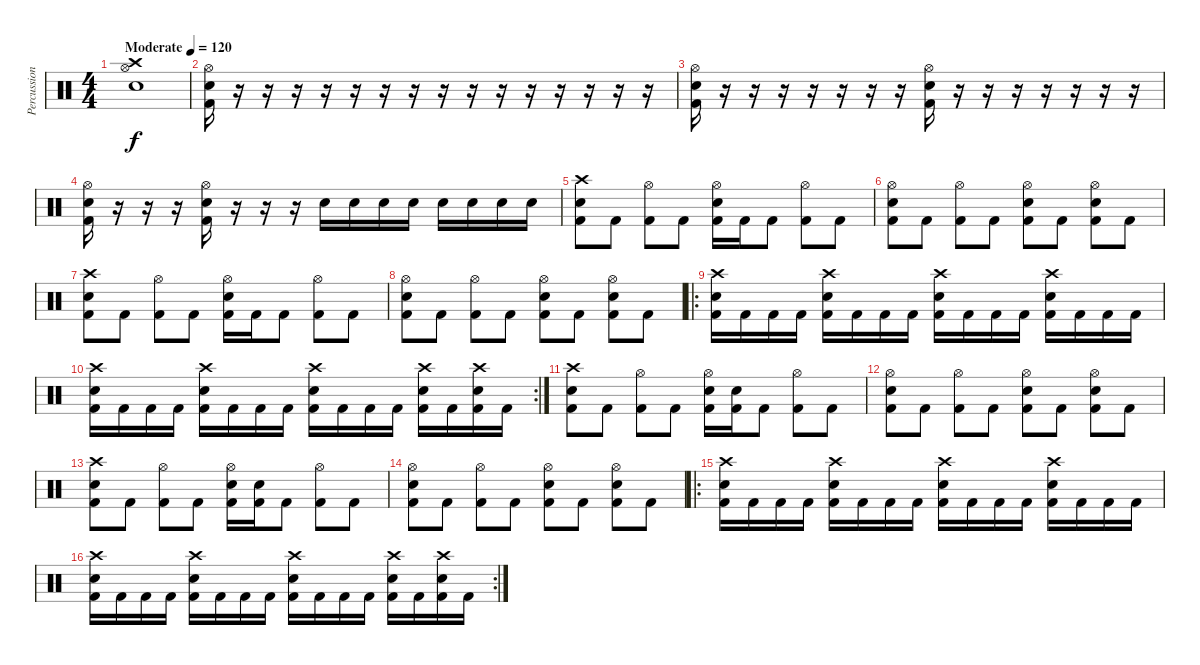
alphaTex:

\track ("Percussion" "Percussion") {instrument percussion}
\staff {score}
\articulation defaults
\ts (4 4)
\tempo (120 "Moderate")
\clef neutral
\ks c
("Crash high (hit)" "Hi-Hat (open)" "Snare (hit) 2").1{dy f} |
("Hi-Hat (open)" "Snare (hit) 2" "Kick (hit) 2").16 r.16 r.16 r.16 r.16 r.16 r.16 r.16 r.16 r.16 r.16 r.16 r.16 r.16 r.16 r.16 |
("Hi-Hat (open)" "Snare (hit) 2" "Kick (hit) 2").16 r.16 r.16 r.16 r.16 r.16 r.16 r.16 ("Hi-Hat (open)" "Snare (hit) 2" "Kick (hit) 2").16 r.16 r.16 r.16 r.16 r.16 r.16 r.16 |
("Hi-Hat (open)" "Snare (hit) 2" "Kick (hit) 2").16 r.16 r.16 r.16 ("Hi-Hat (open)" "Snare (hit) 2" "Kick (hit) 2").16 r.16 r.16 r.16 "Snare (hit) 2".16 "Snare (hit) 2".16 "Snare (hit) 2".16 "Snare (hit) 2".16 "Snare (hit) 2".16 "Snare (hit) 2".16 "Snare (hit) 2".16 "Snare (hit) 2".16 |
("Crash high (hit)" "Snare (hit) 2" "Kick (hit) 2").8 "Kick (hit) 2".8 ("Hi-Hat (open)" "Kick (hit) 2").8 "Kick (hit) 2".8 ("Hi-Hat (open)" "Snare (hit) 2" "Kick (hit) 2").16 "Kick (hit) 2".16 "Kick (hit) 2".8 ("Hi-Hat (open)" "Kick (hit) 2").8 "Kick (hit) 2".8 |
("Hi-Hat (open)" "Snare (hit) 2" "Kick (hit) 2").8 "Kick (hit) 2".8 ("Hi-Hat (open)" "Kick (hit) 2").8 "Kick (hit) 2".8 ("Hi-Hat (open)" "Snare (hit) 2" "Kick (hit) 2").8 "Kick (hit) 2".8 ("Hi-Hat (open)" "Snare (hit) 2" "Kick (hit) 2").8 "Kick (hit) 2".8 |
("Crash high (hit)" "Snare (hit) 2" "Kick (hit) 2").8 "Kick (hit) 2".8 ("Hi-Hat (open)" "Kick (hit) 2").8 "Kick (hit) 2".8 ("Hi-Hat (open)" "Snare (hit) 2" "Kick (hit) 2").16 "Kick (hit) 2".16 "Kick (hit) 2".8 ("Hi-Hat (open)" "Kick (hit) 2").8 "Kick (hit) 2".8 |
("Hi-Hat (open)" "Snare (hit) 2" "Kick (hit) 2").8 "Kick (hit) 2".8 ("Hi-Hat (open)" "Kick (hit) 2").8 "Kick (hit) 2".8 ("Hi-Hat (open)" "Snare (hit) 2" "Kick (hit) 2").8 "Kick (hit) 2".8 ("Hi-Hat (open)" "Snare (hit) 2" "Kick (hit) 2").8 "Kick (hit) 2".8 |
\ro
("Crash high (hit)" "Snare (hit) 2" "Kick (hit) 2").16 "Kick (hit) 2".16 "Kick (hit) 2".16 "Kick (hit) 2".16 ("Crash high (hit)" "Snare (hit) 2" "Kick (hit) 2").16 "Kick (hit) 2".16 "Kick (hit) 2".16 "Kick (hit) 2".16 ("Crash high (hit)" "Snare (hit) 2" "Kick (hit) 2").16 "Kick (hit) 2".16 "Kick (hit) 2".16 "Kick (hit) 2".16 ("Crash high (hit)" "Snare (hit) 2" "Kick (hit) 2").16 "Kick (hit) 2".16 "Kick (hit) 2".16 "Kick (hit) 2".16 |
\rc 2
("Crash high (hit)" "Snare (hit) 2" "Kick (hit) 2").16 "Kick (hit) 2".16 "Kick (hit) 2".16 "Kick (hit) 2".16 ("Crash high (hit)" "Snare (hit) 2" "Kick (hit) 2").16 "Kick (hit) 2".16 "Kick (hit) 2".16 "Kick (hit) 2".16 ("Crash high (hit)" "Snare (hit) 2" "Kick (hit) 2").16 "Kick (hit) 2".16 "Kick (hit) 2".16 "Kick (hit) 2".16 ("Crash high (hit)" "Snare (hit) 2" "Kick (hit) 2").16 "Kick (hit) 2".16 ("Crash high (hit)" "Snare (hit) 2" "Kick (hit) 2").16 "Kick (hit) 2".16 |
("Crash high (hit)" "Snare (hit) 2" "Kick (hit) 2").8 "Kick (hit) 2".8 ("Hi-Hat (open)" "Kick (hit) 2").8 "Kick (hit) 2".8 ("Hi-Hat (open)" "Snare (hit) 2" "Kick (hit) 2").16 ("Snare (hit) 2" "Kick (hit) 2").16 "Kick (hit) 2".8 ("Hi-Hat (open)" "Kick (hit) 2").8 "Kick (hit) 2".8 |
("Hi-Hat (open)" "Snare (hit) 2" "Kick (hit) 2").8 "Kick (hit) 2".8 ("Hi-Hat (open)" "Kick (hit) 2").8 "Kick (hit) 2".8 ("Hi-Hat (open)" "Snare (hit) 2" "Kick (hit) 2").8 "Kick (hit) 2".8 ("Hi-Hat (open)" "Snare (hit) 2" "Kick (hit) 2").8 "Kick (hit) 2".8 |
("Crash high (hit)" "Snare (hit) 2" "Kick (hit) 2").8 "Kick (hit) 2".8 ("Hi-Hat (open)" "Kick (hit) 2").8 "Kick (hit) 2".8 ("Hi-Hat (open)" "Snare (hit) 2" "Kick (hit) 2").16 ("Snare (hit) 2" "Kick (hit) 2").16 "Kick (hit) 2".8 ("Hi-Hat (open)" "Kick (hit) 2").8 "Kick (hit) 2".8 |
("Hi-Hat (open)" "Snare (hit) 2" "Kick (hit) 2").8 "Kick (hit) 2".8 ("Hi-Hat (open)" "Kick (hit) 2").8 "Kick (hit) 2".8 ("Hi-Hat (open)" "Snare (hit) 2" "Kick (hit) 2").8 "Kick (hit) 2".8 ("Hi-Hat (open)" "Snare (hit) 2" "Kick (hit) 2").8 "Kick (hit) 2".8 |
\ro
("Crash high (hit)" "Snare (hit) 2" "Kick (hit) 2").16 "Kick (hit) 2".16 "Kick (hit) 2".16 "Kick (hit) 2".16 ("Crash high (hit)" "Snare (hit) 2" "Kick (hit) 2").16 "Kick (hit) 2".16 "Kick (hit) 2".16 "Kick (hit) 2".16 ("Crash high (hit)" "Snare (hit) 2" "Kick (hit) 2").16 "Kick (hit) 2".16 "Kick (hit) 2".16 "Kick (hit) 2".16 ("Crash high (hit)" "Snare (hit) 2" "Kick (hit) 2").16 "Kick (hit) 2".16 "Kick (hit) 2".16 "Kick (hit) 2".16 |
\rc 2
("Crash high (hit)" "Snare (hit) 2" "Kick (hit) 2").16 "Kick (hit) 2".16 "Kick (hit) 2".16 "Kick (hit) 2".16 ("Crash high (hit)" "Snare (hit) 2" "Kick (hit) 2").16 "Kick (hit) 2".16 "Kick (hit) 2".16 "Kick (hit) 2".16 ("Crash high (hit)" "Snare (hit) 2" "Kick (hit) 2").16 "Kick (hit) 2".16 "Kick (hit) 2".16 "Kick (hit) 2".16 ("Crash high (hit)" "Snare (hit) 2" "Kick (hit) 2").16 "Kick (hit) 2".16 ("Crash high (hit)" "Snare (hit) 2" "Kick (hit) 2").16 "Kick (hit) 2".16
